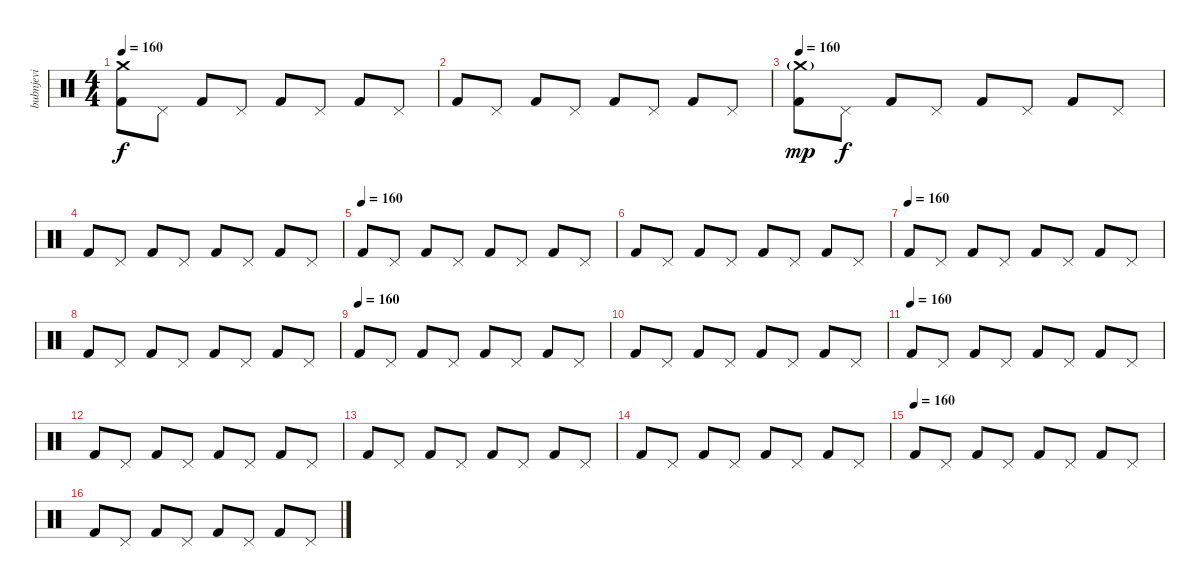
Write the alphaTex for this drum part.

\track ("bubnjevi" "bubnjevi") {instrument percussion}
\staff {score}
\articulation defaults
\ts (4 4)
\tempo 160
\clef neutral
\ks c
("Crash medium (hit)" "Kick (hit) 2").8{dy f} "Pedal Hi-Hat (hit)".8 "Kick (hit) 2".8 "Pedal Hi-Hat (hit)".8 "Kick (hit) 2".8 "Pedal Hi-Hat (hit)".8 "Kick (hit) 2".8 "Pedal Hi-Hat (hit)".8 |
"Kick (hit) 2".8 "Pedal Hi-Hat (hit)".8 "Kick (hit) 2".8 "Pedal Hi-Hat (hit)".8 "Kick (hit) 2".8 "Pedal Hi-Hat (hit)".8 "Kick (hit) 2".8 "Pedal Hi-Hat (hit)".8 |
\tempo 160
("Crash medium (hit)"{g} "Kick (hit) 2").8{dy mp} "Pedal Hi-Hat (hit)".8{dy f} "Kick (hit) 2".8 "Pedal Hi-Hat (hit)".8 "Kick (hit) 2".8 "Pedal Hi-Hat (hit)".8 "Kick (hit) 2".8 "Pedal Hi-Hat (hit)".8 |
"Kick (hit) 2".8 "Pedal Hi-Hat (hit)".8 "Kick (hit) 2".8 "Pedal Hi-Hat (hit)".8 "Kick (hit) 2".8 "Pedal Hi-Hat (hit)".8 "Kick (hit) 2".8 "Pedal Hi-Hat (hit)".8 |
\tempo (160)
"Kick (hit) 2".8 "Pedal Hi-Hat (hit)".8 "Kick (hit) 2".8 "Pedal Hi-Hat (hit)".8 "Kick (hit) 2".8 "Pedal Hi-Hat (hit)".8 "Kick (hit) 2".8 "Pedal Hi-Hat (hit)".8 |
"Kick (hit) 2".8 "Pedal Hi-Hat (hit)".8 "Kick (hit) 2".8 "Pedal Hi-Hat (hit)".8 "Kick (hit) 2".8 "Pedal Hi-Hat (hit)".8 "Kick (hit) 2".8 "Pedal Hi-Hat (hit)".8 |
\tempo (160)
"Kick (hit) 2".8 "Pedal Hi-Hat (hit)".8 "Kick (hit) 2".8 "Pedal Hi-Hat (hit)".8 "Kick (hit) 2".8 "Pedal Hi-Hat (hit)".8 "Kick (hit) 2".8 "Pedal Hi-Hat (hit)".8 |
"Kick (hit) 2".8 "Pedal Hi-Hat (hit)".8 "Kick (hit) 2".8 "Pedal Hi-Hat (hit)".8 "Kick (hit) 2".8 "Pedal Hi-Hat (hit)".8 "Kick (hit) 2".8 "Pedal Hi-Hat (hit)".8 |
\tempo (160)
"Kick (hit) 2".8 "Pedal Hi-Hat (hit)".8 "Kick (hit) 2".8 "Pedal Hi-Hat (hit)".8 "Kick (hit) 2".8 "Pedal Hi-Hat (hit)".8 "Kick (hit) 2".8 "Pedal Hi-Hat (hit)".8 |
"Kick (hit) 2".8 "Pedal Hi-Hat (hit)".8 "Kick (hit) 2".8 "Pedal Hi-Hat (hit)".8 "Kick (hit) 2".8 "Pedal Hi-Hat (hit)".8 "Kick (hit) 2".8 "Pedal Hi-Hat (hit)".8 |
\tempo (160)
"Kick (hit) 2".8 "Pedal Hi-Hat (hit)".8 "Kick (hit) 2".8 "Pedal Hi-Hat (hit)".8 "Kick (hit) 2".8 "Pedal Hi-Hat (hit)".8 "Kick (hit) 2".8 "Pedal Hi-Hat (hit)".8 |
"Kick (hit) 2".8 "Pedal Hi-Hat (hit)".8 "Kick (hit) 2".8 "Pedal Hi-Hat (hit)".8 "Kick (hit) 2".8 "Pedal Hi-Hat (hit)".8 "Kick (hit) 2".8 "Pedal Hi-Hat (hit)".8 |
"Kick (hit) 2".8 "Pedal Hi-Hat (hit)".8 "Kick (hit) 2".8 "Pedal Hi-Hat (hit)".8 "Kick (hit) 2".8 "Pedal Hi-Hat (hit)".8 "Kick (hit) 2".8 "Pedal Hi-Hat (hit)".8 |
"Kick (hit) 2".8 "Pedal Hi-Hat (hit)".8 "Kick (hit) 2".8 "Pedal Hi-Hat (hit)".8 "Kick (hit) 2".8 "Pedal Hi-Hat (hit)".8 "Kick (hit) 2".8 "Pedal Hi-Hat (hit)".8 |
\tempo (160)
"Kick (hit) 2".8 "Pedal Hi-Hat (hit)".8 "Kick (hit) 2".8 "Pedal Hi-Hat (hit)".8 "Kick (hit) 2".8 "Pedal Hi-Hat (hit)".8 "Kick (hit) 2".8 "Pedal Hi-Hat (hit)".8 |
"Kick (hit) 2".8 "Pedal Hi-Hat (hit)".8 "Kick (hit) 2".8 "Pedal Hi-Hat (hit)".8 "Kick (hit) 2".8 "Pedal Hi-Hat (hit)".8 "Kick (hit) 2".8 "Pedal Hi-Hat (hit)".8
